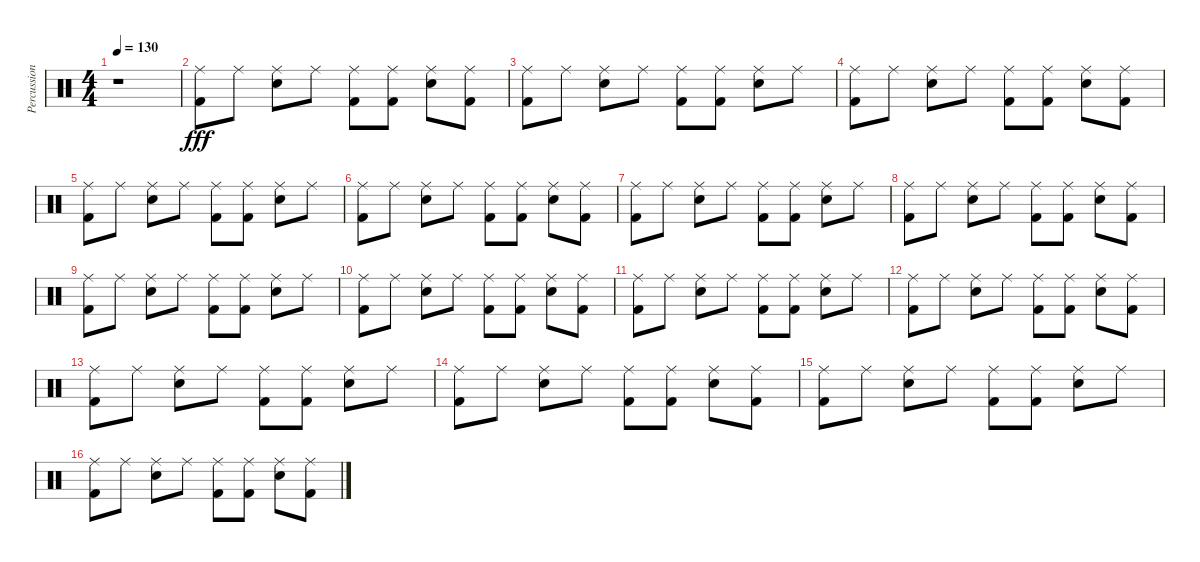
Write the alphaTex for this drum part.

\track ("Percussion" "Percussion") {solo instrument percussion}
\staff {score}
\articulation defaults
\ts (4 4)
\tempo 130
\clef neutral
\ks c
r.1{dy fff} |
("Ride (middle)" "Kick (hit) 2").8 "Ride (middle)".8 ("Ride (middle)" "Snare (hit) 2").8 "Ride (middle)".8 ("Ride (middle)" "Kick (hit) 2").8 ("Ride (middle)" "Kick (hit) 2").8 ("Ride (middle)" "Snare (hit) 2").8 ("Ride (middle)" "Kick (hit) 2").8 |
("Ride (middle)" "Kick (hit) 2").8 "Ride (middle)".8 ("Ride (middle)" "Snare (hit) 2").8 "Ride (middle)".8 ("Ride (middle)" "Kick (hit) 2").8 ("Ride (middle)" "Kick (hit) 2").8 ("Ride (middle)" "Snare (hit) 2").8 "Ride (middle)".8 |
("Ride (middle)" "Kick (hit) 2").8 "Ride (middle)".8 ("Ride (middle)" "Snare (hit) 2").8 "Ride (middle)".8 ("Ride (middle)" "Kick (hit) 2").8 ("Ride (middle)" "Kick (hit) 2").8 ("Ride (middle)" "Snare (hit) 2").8 ("Ride (middle)" "Kick (hit) 2").8 |
("Ride (middle)" "Kick (hit) 2").8 "Ride (middle)".8 ("Ride (middle)" "Snare (hit) 2").8 "Ride (middle)".8 ("Ride (middle)" "Kick (hit) 2").8 ("Ride (middle)" "Kick (hit) 2").8 ("Ride (middle)" "Snare (hit) 2").8 "Ride (middle)".8 |
("Ride (middle)" "Kick (hit) 2").8 "Ride (middle)".8 ("Ride (middle)" "Snare (hit) 2").8 "Ride (middle)".8 ("Ride (middle)" "Kick (hit) 2").8 ("Ride (middle)" "Kick (hit) 2").8 ("Ride (middle)" "Snare (hit) 2").8 ("Ride (middle)" "Kick (hit) 2").8 |
("Ride (middle)" "Kick (hit) 2").8 "Ride (middle)".8 ("Ride (middle)" "Snare (hit) 2").8 "Ride (middle)".8 ("Ride (middle)" "Kick (hit) 2").8 ("Ride (middle)" "Kick (hit) 2").8 ("Ride (middle)" "Snare (hit) 2").8 "Ride (middle)".8 |
("Ride (middle)" "Kick (hit) 2").8 "Ride (middle)".8 ("Ride (middle)" "Snare (hit) 2").8 "Ride (middle)".8 ("Ride (middle)" "Kick (hit) 2").8 ("Ride (middle)" "Kick (hit) 2").8 ("Ride (middle)" "Snare (hit) 2").8 ("Ride (middle)" "Kick (hit) 2").8 |
("Ride (middle)" "Kick (hit) 2").8 "Ride (middle)".8 ("Ride (middle)" "Snare (hit) 2").8 "Ride (middle)".8 ("Ride (middle)" "Kick (hit) 2").8 ("Ride (middle)" "Kick (hit) 2").8 ("Ride (middle)" "Snare (hit) 2").8 "Ride (middle)".8 |
("Ride (middle)" "Kick (hit) 2").8 "Ride (middle)".8 ("Ride (middle)" "Snare (hit) 2").8 "Ride (middle)".8 ("Ride (middle)" "Kick (hit) 2").8 ("Ride (middle)" "Kick (hit) 2").8 ("Ride (middle)" "Snare (hit) 2").8 ("Ride (middle)" "Kick (hit) 2").8 |
("Ride (middle)" "Kick (hit) 2").8 "Ride (middle)".8 ("Ride (middle)" "Snare (hit) 2").8 "Ride (middle)".8 ("Ride (middle)" "Kick (hit) 2").8 ("Ride (middle)" "Kick (hit) 2").8 ("Ride (middle)" "Snare (hit) 2").8 "Ride (middle)".8 |
("Ride (middle)" "Kick (hit) 2").8 "Ride (middle)".8 ("Ride (middle)" "Snare (hit) 2").8 "Ride (middle)".8 ("Ride (middle)" "Kick (hit) 2").8 ("Ride (middle)" "Kick (hit) 2").8 ("Ride (middle)" "Snare (hit) 2").8 ("Ride (middle)" "Kick (hit) 2").8 |
("Ride (middle)" "Kick (hit) 2").8 "Ride (middle)".8 ("Ride (middle)" "Snare (hit) 2").8 "Ride (middle)".8 ("Ride (middle)" "Kick (hit) 2").8 ("Ride (middle)" "Kick (hit) 2").8 ("Ride (middle)" "Snare (hit) 2").8 "Ride (middle)".8 |
("Ride (middle)" "Kick (hit) 2").8 "Ride (middle)".8 ("Ride (middle)" "Snare (hit) 2").8 "Ride (middle)".8 ("Ride (middle)" "Kick (hit) 2").8 ("Ride (middle)" "Kick (hit) 2").8 ("Ride (middle)" "Snare (hit) 2").8 ("Ride (middle)" "Kick (hit) 2").8 |
("Ride (middle)" "Kick (hit) 2").8 "Ride (middle)".8 ("Ride (middle)" "Snare (hit) 2").8 "Ride (middle)".8 ("Ride (middle)" "Kick (hit) 2").8 ("Ride (middle)" "Kick (hit) 2").8 ("Ride (middle)" "Snare (hit) 2").8 "Ride (middle)".8 |
("Ride (middle)" "Kick (hit) 2").8 "Ride (middle)".8 ("Ride (middle)" "Snare (hit) 2").8 "Ride (middle)".8 ("Ride (middle)" "Kick (hit) 2").8 ("Ride (middle)" "Kick (hit) 2").8 ("Ride (middle)" "Snare (hit) 2").8 ("Ride (middle)" "Kick (hit) 2").8
